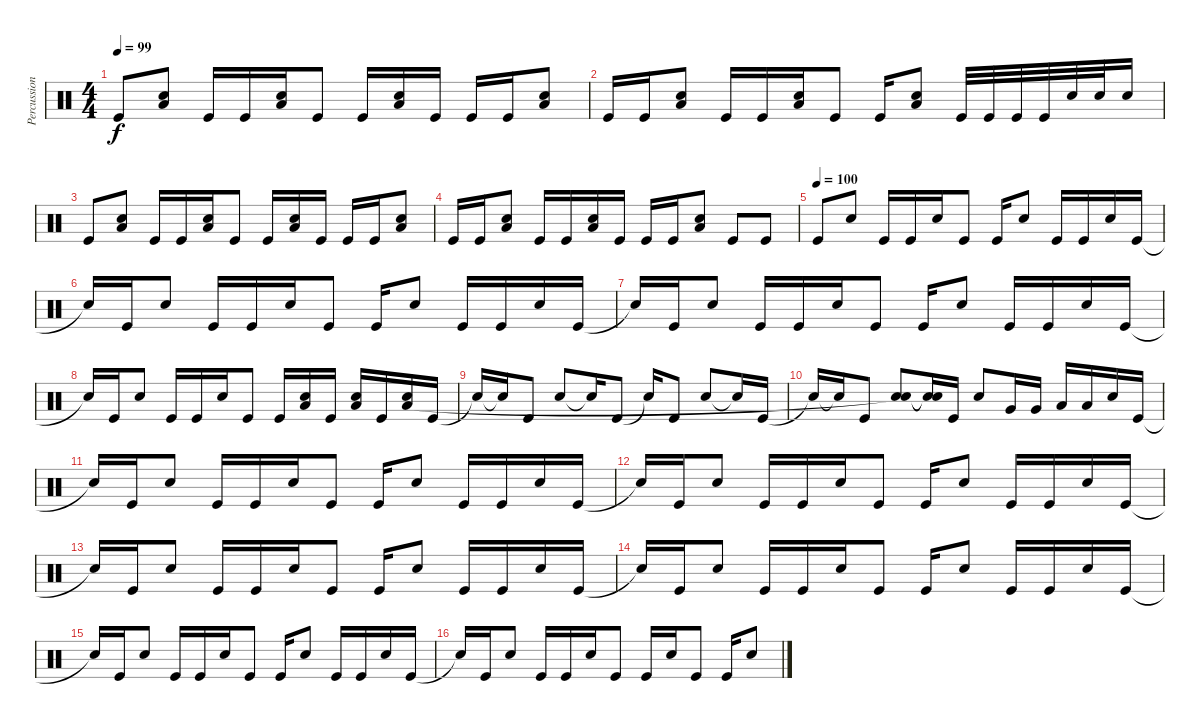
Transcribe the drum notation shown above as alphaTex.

\track ("Percussion" "Percussion") {instrument percussion}
\staff {score}
\articulation defaults
\ts (4 4)
\tempo 99
\clef neutral
\ks c "Kick (hit)".8{dy f}
("Electric Snare (hit)" "Low Floor Tom (hit)").8 "Kick (hit)".16 "Kick (hit)".16 ("Electric Snare (hit)" "Low Floor Tom (hit)").16 "Kick (hit)".8 "Kick (hit)".16 ("Electric Snare (hit)" "Low Floor Tom (hit)").16 "Kick (hit)".16 "Kick (hit)".16 "Kick (hit)".16 ("Electric Snare (hit)" "Low Floor Tom (hit)").8 |
"Kick (hit)".16 "Kick (hit)".16 ("Electric Snare (hit)" "Low Floor Tom (hit)").8 "Kick (hit)".16 "Kick (hit)".16 ("Electric Snare (hit)" "Low Floor Tom (hit)").16 "Kick (hit)".8 "Kick (hit)".16 ("Electric Snare (hit)" "Low Floor Tom (hit)").8 "Kick (hit)".32 "Kick (hit)".32 "Kick (hit)".32 "Kick (hit)".32 "Electric Snare (hit)".32 "Electric Snare (hit)".32 "Electric Snare (hit)".16 |
"Kick (hit)".8 ("Electric Snare (hit)" "Low Floor Tom (hit)").8 "Kick (hit)".16 "Kick (hit)".16 ("Electric Snare (hit)" "Low Floor Tom (hit)").16 "Kick (hit)".8 "Kick (hit)".16 ("Electric Snare (hit)" "Low Floor Tom (hit)").16 "Kick (hit)".16 "Kick (hit)".16 "Kick (hit)".16 ("Electric Snare (hit)" "Low Floor Tom (hit)").8 |
"Kick (hit)".16 "Kick (hit)".16 ("Electric Snare (hit)" "Low Floor Tom (hit)").8 "Kick (hit)".16 "Kick (hit)".16 ("Electric Snare (hit)" "Low Floor Tom (hit)").16 "Kick (hit)".16 "Kick (hit)".16 "Kick (hit)".16 ("Electric Snare (hit)" "Low Floor Tom (hit)").8 "Kick (hit)".8 "Kick (hit)".8 |
\tempo (100)
"Kick (hit)".8 "Electric Snare (hit)".8 "Kick (hit)".16 "Kick (hit)".16 "Electric Snare (hit)".16 "Kick (hit)".8 "Kick (hit)".16 "Electric Snare (hit)".8 "Kick (hit)".16 "Kick (hit)".16 "Electric Snare (hit)".16 "Kick (hit)".16 |
"Snare (hit)"{t}.16 "Kick (hit)".16 "Electric Snare (hit)".8 "Kick (hit)".16 "Kick (hit)".16 "Electric Snare (hit)".16 "Kick (hit)".8 "Kick (hit)".16 "Electric Snare (hit)".8 "Kick (hit)".16 "Kick (hit)".16 "Electric Snare (hit)".16 "Kick (hit)".16 |
"Snare (hit)"{t}.16 "Kick (hit)".16 "Electric Snare (hit)".8 "Kick (hit)".16 "Kick (hit)".16 "Electric Snare (hit)".16 "Kick (hit)".8 "Kick (hit)".16 "Electric Snare (hit)".8 "Kick (hit)".16 "Kick (hit)".16 "Electric Snare (hit)".16 "Kick (hit)".16 |
"Snare (hit)"{t}.16 "Kick (hit)".16 "Electric Snare (hit)".8 "Kick (hit)".16 "Kick (hit)".16 "Electric Snare (hit)".16 "Kick (hit)".8 "Kick (hit)".16 ("Electric Snare (hit)" "Low Floor Tom (hit)").16 "Kick (hit)".16 ("Electric Snare (hit)" "Low Floor Tom (hit)").16 "Kick (hit)".16 ("Electric Snare (hit)" "Low Floor Tom (hit)").16 "Kick (hit)".16 |
"Snare (hit)"{t}.16 "Snare (hit)"{t}.16 "Kick (hit)".8 "Electric Snare (hit)".8 "Snare (hit)"{t}.16 "Kick (hit)".8 "Snare (hit)"{t}.16 "Kick (hit)".8 "Electric Snare (hit)".8 "Snare (hit)"{t}.16 "Kick (hit)".16 |
"Snare (hit)"{t}.16 "Snare (hit)"{t}.16 "Kick (hit)".8 ("Electric Snare (hit)" "Snare (hit)"{t}).8 ("Snare (hit)"{t} "Snare (hit)"{t}).16 "Kick (hit)".16 "Electric Snare (hit)".8 "Very Low Tom (hit)".16 "Very Low Tom (hit)".16 "Low Floor Tom (hit)".16 "Low Floor Tom (hit)".16 "Electric Snare (hit)".16 "Kick (hit)".16 |
"Snare (hit)"{t}.16 "Kick (hit)".16 "Electric Snare (hit)".8 "Kick (hit)".16 "Kick (hit)".16 "Electric Snare (hit)".16 "Kick (hit)".8 "Kick (hit)".16 "Electric Snare (hit)".8 "Kick (hit)".16 "Kick (hit)".16 "Electric Snare (hit)".16 "Kick (hit)".16 |
"Snare (hit)"{t}.16 "Kick (hit)".16 "Electric Snare (hit)".8 "Kick (hit)".16 "Kick (hit)".16 "Electric Snare (hit)".16 "Kick (hit)".8 "Kick (hit)".16 "Electric Snare (hit)".8 "Kick (hit)".16 "Kick (hit)".16 "Electric Snare (hit)".16 "Kick (hit)".16 |
"Snare (hit)"{t}.16 "Kick (hit)".16 "Electric Snare (hit)".8 "Kick (hit)".16 "Kick (hit)".16 "Electric Snare (hit)".16 "Kick (hit)".8 "Kick (hit)".16 "Electric Snare (hit)".8 "Kick (hit)".16 "Kick (hit)".16 "Electric Snare (hit)".16 "Kick (hit)".16 |
"Snare (hit)"{t}.16 "Kick (hit)".16 "Electric Snare (hit)".8 "Kick (hit)".16 "Kick (hit)".16 "Electric Snare (hit)".16 "Kick (hit)".8 "Kick (hit)".16 "Electric Snare (hit)".8 "Kick (hit)".16 "Kick (hit)".16 "Electric Snare (hit)".16 "Kick (hit)".16 |
"Snare (hit)"{t}.16 "Kick (hit)".16 "Electric Snare (hit)".8 "Kick (hit)".16 "Kick (hit)".16 "Electric Snare (hit)".16 "Kick (hit)".8 "Kick (hit)".16 "Electric Snare (hit)".8 "Kick (hit)".16 "Kick (hit)".16 "Electric Snare (hit)".16 "Kick (hit)".16 |
"Snare (hit)"{t}.16 "Kick (hit)".16 "Electric Snare (hit)".8 "Kick (hit)".16 "Kick (hit)".16 "Electric Snare (hit)".16 "Kick (hit)".8 "Kick (hit)".16 "Electric Snare (hit)".16 "Kick (hit)".8 "Kick (hit)".16 "Electric Snare (hit)".8
